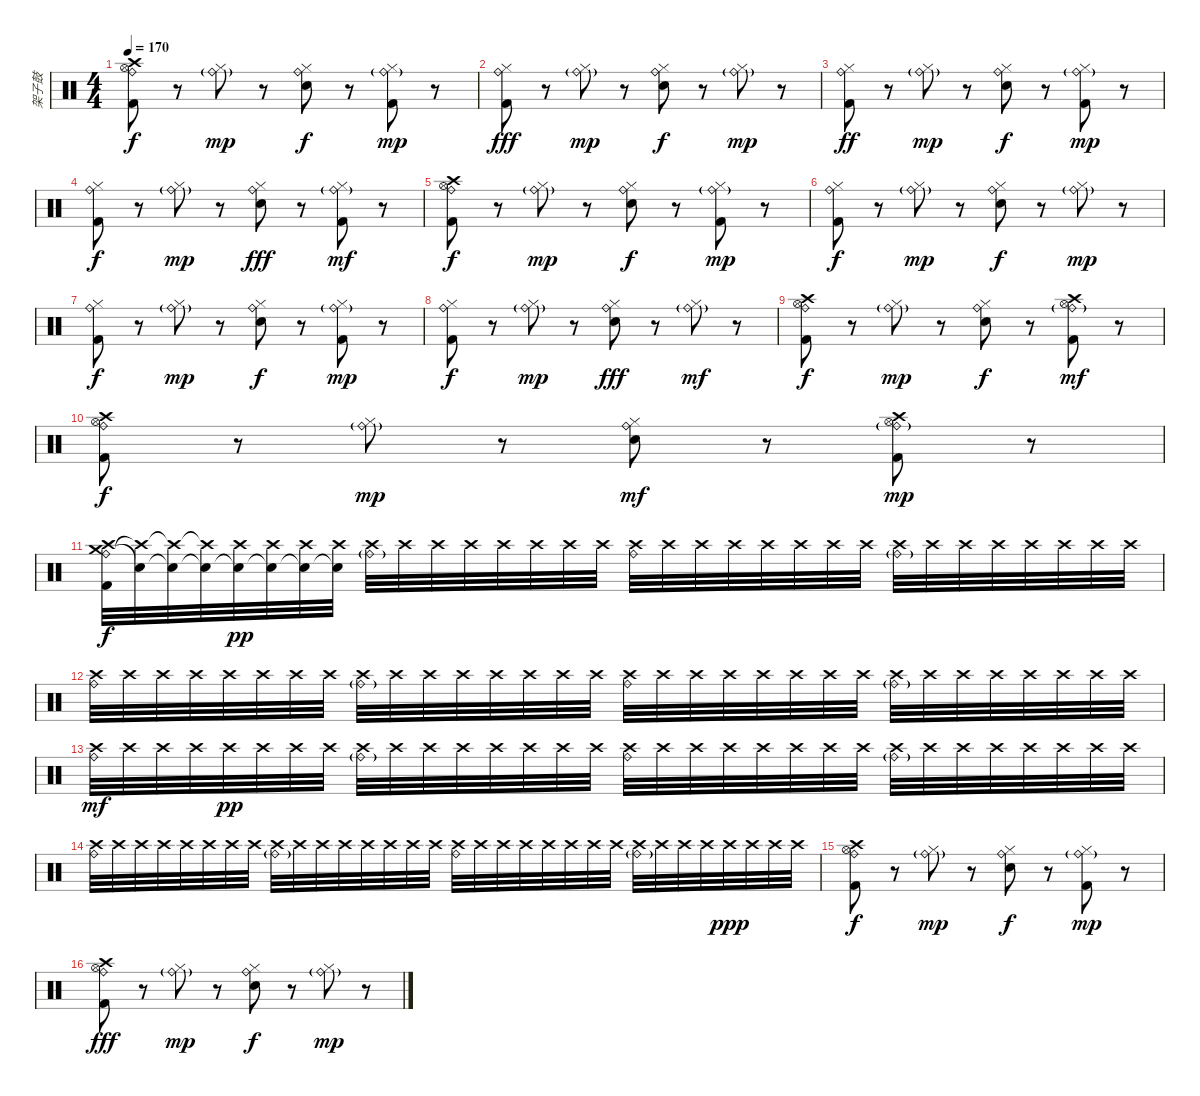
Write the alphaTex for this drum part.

\track ("架子鼓" "架子鼓") {instrument percussion}
\staff {score}
\articulation defaults
\ts (4 4)
\tempo 170
\clef neutral
\ks c
("Crash high (hit)" "Ride (bell)" "Kick (hit) 2" "Hi-Hat (open)").8{dy f} r.8 ("Hi-Hat (closed)" "Ride (bell)"{g}).8{dy mp} r.8 ("Hi-Hat (closed)" "Ride (bell)" "Snare (hit) 2").8{dy f} r.8 ("Hi-Hat (closed)" "Ride (bell)"{g} "Kick (hit) 2").8{dy mp} r.8 |
("Hi-Hat (closed)" "Ride (bell)" "Kick (hit) 2").8{dy fff} r.8 ("Hi-Hat (closed)" "Ride (bell)"{g}).8{dy mp} r.8 ("Hi-Hat (closed)" "Ride (bell)" "Snare (hit) 2").8{dy f} r.8 ("Hi-Hat (closed)" "Ride (bell)"{g}).8{dy mp} r.8 |
("Hi-Hat (closed)" "Ride (bell)" "Kick (hit) 2").8{dy ff} r.8 ("Hi-Hat (closed)" "Ride (bell)"{g}).8{dy mp} r.8 ("Hi-Hat (closed)" "Ride (bell)" "Snare (hit) 2").8{dy f} r.8 ("Hi-Hat (closed)" "Ride (bell)"{g} "Kick (hit) 2").8{dy mp} r.8 |
("Hi-Hat (closed)" "Ride (bell)" "Kick (hit) 2").8{dy f} r.8 ("Hi-Hat (closed)" "Ride (bell)"{g}).8{dy mp} r.8 ("Hi-Hat (closed)" "Ride (bell)" "Snare (hit) 2").8{dy fff} r.8 ("Hi-Hat (closed)" "Ride (bell)"{g} "Kick (hit) 2").8{dy mf} r.8 |
("Crash high (hit)" "Ride (bell)" "Kick (hit) 2" "Hi-Hat (open)").8{dy f} r.8 ("Hi-Hat (closed)" "Ride (bell)"{g}).8{dy mp} r.8 ("Hi-Hat (closed)" "Ride (bell)" "Snare (hit) 2").8{dy f} r.8 ("Hi-Hat (closed)" "Ride (bell)"{g} "Kick (hit) 2").8{dy mp} r.8 |
("Hi-Hat (closed)" "Ride (bell)" "Kick (hit) 2").8{dy f} r.8 ("Hi-Hat (closed)" "Ride (bell)"{g}).8{dy mp} r.8 ("Hi-Hat (closed)" "Ride (bell)" "Snare (hit) 2").8{dy f} r.8 ("Hi-Hat (closed)" "Ride (bell)"{g}).8{dy mp} r.8 |
("Hi-Hat (closed)" "Ride (bell)" "Kick (hit) 2").8{dy f} r.8 ("Hi-Hat (closed)" "Ride (bell)"{g}).8{dy mp} r.8 ("Hi-Hat (closed)" "Ride (bell)" "Snare (hit) 2").8{dy f} r.8 ("Hi-Hat (closed)" "Ride (bell)"{g} "Kick (hit) 2").8{dy mp} r.8 |
("Hi-Hat (closed)" "Ride (bell)" "Kick (hit) 2").8{dy f} r.8 ("Hi-Hat (closed)" "Ride (bell)"{g}).8{dy mp} r.8 ("Hi-Hat (closed)" "Ride (bell)" "Snare (hit) 2").8{dy fff} r.8 ("Hi-Hat (closed)" "Ride (bell)"{g}).8{dy mf} r.8 |
("Crash high (hit)" "Ride (bell)" "Kick (hit) 2" "Hi-Hat (open)").8{dy f} r.8 ("Hi-Hat (closed)" "Ride (bell)"{g}).8{dy mp} r.8 ("Hi-Hat (closed)" "Ride (bell)" "Snare (hit) 2").8{dy f} r.8 ("Crash high (hit)" "Ride (bell)"{g} "Kick (hit) 2" "Hi-Hat (open)").8{dy mf} r.8 |
("Crash high (hit)" "Ride (bell)" "Kick (hit) 2" "Hi-Hat (open)").8{dy f} r.8 ("Hi-Hat (closed)" "Ride (bell)"{g}).8{dy mp} r.8 ("Hi-Hat (closed)" "Ride (bell)" "Snare (hit) 2").8{dy mf} r.8 ("Hi-Hat (open)" "Ride (bell)"{g} "Kick (hit) 2" "Crash high (hit)").8{dy mp} r.8 |
("Crash medium (hit)" "Ride (bell)" "Kick (hit) 2" "Crash high (hit)").32{dy f} ("Snare (hit)"{t} "Crash high (hit)"{t}).32 ("Snare (hit)"{t} "Crash high (hit)"{t}).32 ("Snare (hit)"{t} "Crash high (hit)"{t}).32 ("Snare (hit)"{t} "Crash high (hit)").32{dy pp} ("Snare (hit)"{t} "Crash high (hit)").32 ("Snare (hit)"{t} "Crash high (hit)").32 ("Snare (hit)"{t} "Crash high (hit)").32 ("Ride (bell)"{g} "Crash high (hit)").32 "Crash high (hit)".32 "Crash high (hit)".32 "Crash high (hit)".32 "Crash high (hit)".32 "Crash high (hit)".32 "Crash high (hit)".32 "Crash high (hit)".32 ("Ride (bell)" "Crash high (hit)").32 "Crash high (hit)".32 "Crash high (hit)".32 "Crash high (hit)".32 "Crash high (hit)".32 "Crash high (hit)".32 "Crash high (hit)".32 "Crash high (hit)".32 ("Ride (bell)"{g} "Crash high (hit)").32 "Crash high (hit)".32 "Crash high (hit)".32 "Crash high (hit)".32 "Crash high (hit)".32 "Crash high (hit)".32 "Crash high (hit)".32 "Crash high (hit)".32 |
("Ride (bell)" "Crash high (hit)").32 "Crash high (hit)".32 "Crash high (hit)".32 "Crash high (hit)".32 "Crash high (hit)".32 "Crash high (hit)".32 "Crash high (hit)".32 "Crash high (hit)".32 ("Ride (bell)"{g} "Crash high (hit)").32 "Crash high (hit)".32 "Crash high (hit)".32 "Crash high (hit)".32 "Crash high (hit)".32 "Crash high (hit)".32 "Crash high (hit)".32 "Crash high (hit)".32 ("Ride (bell)" "Crash high (hit)").32 "Crash high (hit)".32 "Crash high (hit)".32 "Crash high (hit)".32 "Crash high (hit)".32 "Crash high (hit)".32 "Crash high (hit)".32 "Crash high (hit)".32 ("Ride (bell)"{g} "Crash high (hit)").32 "Crash high (hit)".32 "Crash high (hit)".32 "Crash high (hit)".32 "Crash high (hit)".32 "Crash high (hit)".32 "Crash high (hit)".32 "Crash high (hit)".32 |
("Ride (bell)" "Crash high (hit)").32{dy mf} "Crash high (hit)".32 "Crash high (hit)".32 "Crash high (hit)".32 "Crash high (hit)".32{dy pp} "Crash high (hit)".32 "Crash high (hit)".32 "Crash high (hit)".32 ("Ride (bell)"{g} "Crash high (hit)").32 "Crash high (hit)".32 "Crash high (hit)".32 "Crash high (hit)".32 "Crash high (hit)".32 "Crash high (hit)".32 "Crash high (hit)".32 "Crash high (hit)".32 ("Ride (bell)" "Crash high (hit)").32 "Crash high (hit)".32 "Crash high (hit)".32 "Crash high (hit)".32 "Crash high (hit)".32 "Crash high (hit)".32 "Crash high (hit)".32 "Crash high (hit)".32 ("Ride (bell)"{g} "Crash high (hit)").32 "Crash high (hit)".32 "Crash high (hit)".32 "Crash high (hit)".32 "Crash high (hit)".32 "Crash high (hit)".32 "Crash high (hit)".32 "Crash high (hit)".32 |
("Ride (bell)" "Crash high (hit)").32 "Crash high (hit)".32 "Crash high (hit)".32 "Crash high (hit)".32 "Crash high (hit)".32 "Crash high (hit)".32 "Crash high (hit)".32 "Crash high (hit)".32 ("Ride (bell)"{g} "Crash high (hit)").32 "Crash high (hit)".32 "Crash high (hit)".32 "Crash high (hit)".32 "Crash high (hit)".32 "Crash high (hit)".32 "Crash high (hit)".32 "Crash high (hit)".32 ("Ride (bell)" "Crash high (hit)").32 "Crash high (hit)".32 "Crash high (hit)".32 "Crash high (hit)".32 "Crash high (hit)".32 "Crash high (hit)".32 "Crash high (hit)".32 "Crash high (hit)".32 ("Ride (bell)"{g} "Crash high (hit)").32 "Crash high (hit)".32 "Crash high (hit)".32 "Crash high (hit)".32 "Crash high (hit)".32{dy ppp} "Crash high (hit)".32 "Crash high (hit)".32 "Crash high (hit)".32 |
("Crash high (hit)" "Ride (bell)" "Kick (hit) 2" "Hi-Hat (open)").8{dy f} r.8 ("Hi-Hat (closed)" "Ride (bell)"{g}).8{dy mp} r.8 ("Hi-Hat (closed)" "Ride (bell)" "Snare (hit) 2").8{dy f} r.8 ("Hi-Hat (closed)" "Ride (bell)"{g} "Kick (hit) 2").8{dy mp} r.8 |
("Crash high (hit)" "Ride (bell)" "Kick (hit) 2" "Hi-Hat (open)").8{dy fff} r.8 ("Hi-Hat (closed)" "Ride (bell)"{g}).8{dy mp} r.8 ("Hi-Hat (closed)" "Ride (bell)" "Snare (hit) 2").8{dy f} r.8 ("Hi-Hat (closed)" "Ride (bell)"{g}).8{dy mp} r.8
